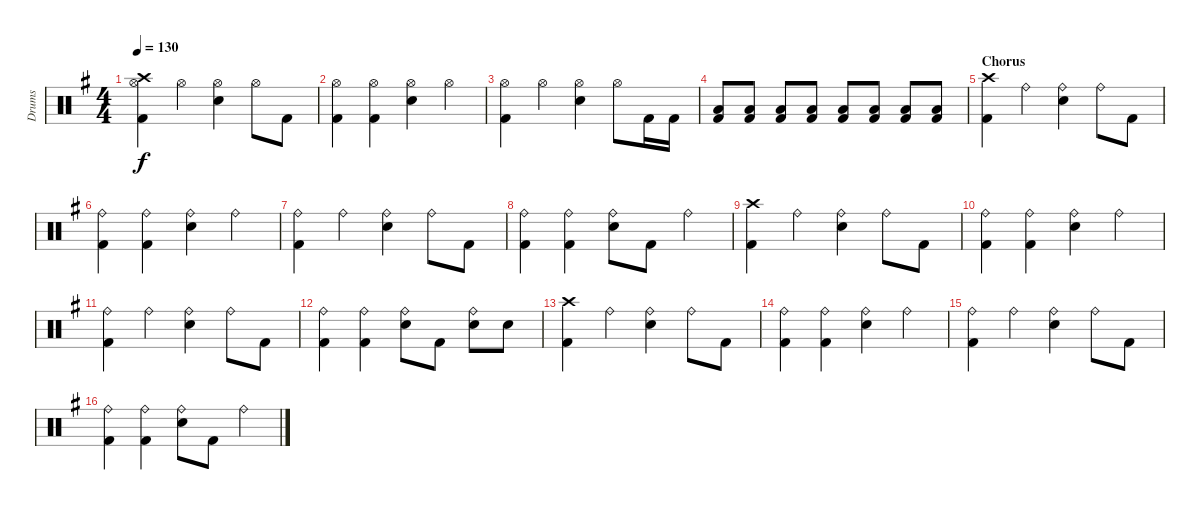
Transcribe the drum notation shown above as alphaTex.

\track ("Drums" "Drums") {instrument percussion}
\staff {score}
\articulation defaults
\ts (4 4)
\tempo 130
\clef neutral
\ks eminor
("Crash high (hit)" "Hi-Hat (open)" "Kick (hit) 2").4{dy f} "Hi-Hat (open)".4 ("Hi-Hat (open)" "Snare (hit) 2").4 "Hi-Hat (open)".8 "Kick (hit) 2".8 |
("Hi-Hat (open)" "Kick (hit) 2").4 ("Hi-Hat (open)" "Kick (hit) 2").4 ("Hi-Hat (open)" "Snare (hit) 2").4 "Hi-Hat (open)".4 |
("Hi-Hat (open)" "Kick (hit) 2").4 "Hi-Hat (open)".4 ("Hi-Hat (open)" "Snare (hit) 2").4 "Hi-Hat (open)".8 "Kick (hit) 2".16 "Kick (hit) 2".16 |
("Low Floor Tom (hit)" "Kick (hit) 2").8 ("Low Floor Tom (hit)" "Kick (hit) 2").8 ("Low Floor Tom (hit)" "Kick (hit) 2").8 ("Low Floor Tom (hit)" "Kick (hit) 2").8 ("Low Floor Tom (hit)" "Kick (hit) 2").8 ("Low Floor Tom (hit)" "Kick (hit) 2").8 ("Low Floor Tom (hit)" "Kick (hit) 2").8 ("Low Floor Tom (hit)" "Kick (hit) 2").8 |
\section ("" "Chorus")
("Crash high (hit)" "Kick (hit) 2").4 "Ride (bell)".4 ("Ride (bell)" "Snare (hit) 2").4 "Ride (bell)".8 "Kick (hit) 2".8 |
("Ride (bell)" "Kick (hit) 2").4 ("Ride (bell)" "Kick (hit) 2").4 ("Ride (bell)" "Snare (hit) 2").4 "Ride (bell)".4 |
("Ride (bell)" "Kick (hit) 2").4 "Ride (bell)".4 ("Ride (bell)" "Snare (hit) 2").4 "Ride (bell)".8 "Kick (hit) 2".8 |
("Ride (bell)" "Kick (hit) 2").4 ("Ride (bell)" "Kick (hit) 2").4 ("Ride (bell)" "Snare (hit) 2").8 "Kick (hit) 2".8 "Ride (bell)".4 |
("Crash high (hit)" "Kick (hit) 2").4 "Ride (bell)".4 ("Ride (bell)" "Snare (hit) 2").4 "Ride (bell)".8 "Kick (hit) 2".8 |
("Ride (bell)" "Kick (hit) 2").4 ("Ride (bell)" "Kick (hit) 2").4 ("Ride (bell)" "Snare (hit) 2").4 "Ride (bell)".4 |
("Ride (bell)" "Kick (hit) 2").4 "Ride (bell)".4 ("Ride (bell)" "Snare (hit) 2").4 "Ride (bell)".8 "Kick (hit) 2".8 |
("Ride (bell)" "Kick (hit) 2").4 ("Ride (bell)" "Kick (hit) 2").4 ("Ride (bell)" "Snare (hit) 2").8 "Kick (hit) 2".8 ("Ride (bell)" "Snare (hit) 2").8 "Snare (hit) 2".8 |
("Crash high (hit)" "Kick (hit) 2").4 "Ride (bell)".4 ("Ride (bell)" "Snare (hit) 2").4 "Ride (bell)".8 "Kick (hit) 2".8 |
("Ride (bell)" "Kick (hit) 2").4 ("Ride (bell)" "Kick (hit) 2").4 ("Ride (bell)" "Snare (hit) 2").4 "Ride (bell)".4 |
("Ride (bell)" "Kick (hit) 2").4 "Ride (bell)".4 ("Ride (bell)" "Snare (hit) 2").4 "Ride (bell)".8 "Kick (hit) 2".8 |
("Ride (bell)" "Kick (hit) 2").4 ("Ride (bell)" "Kick (hit) 2").4 ("Ride (bell)" "Snare (hit) 2").8 "Kick (hit) 2".8 "Ride (bell)".4
